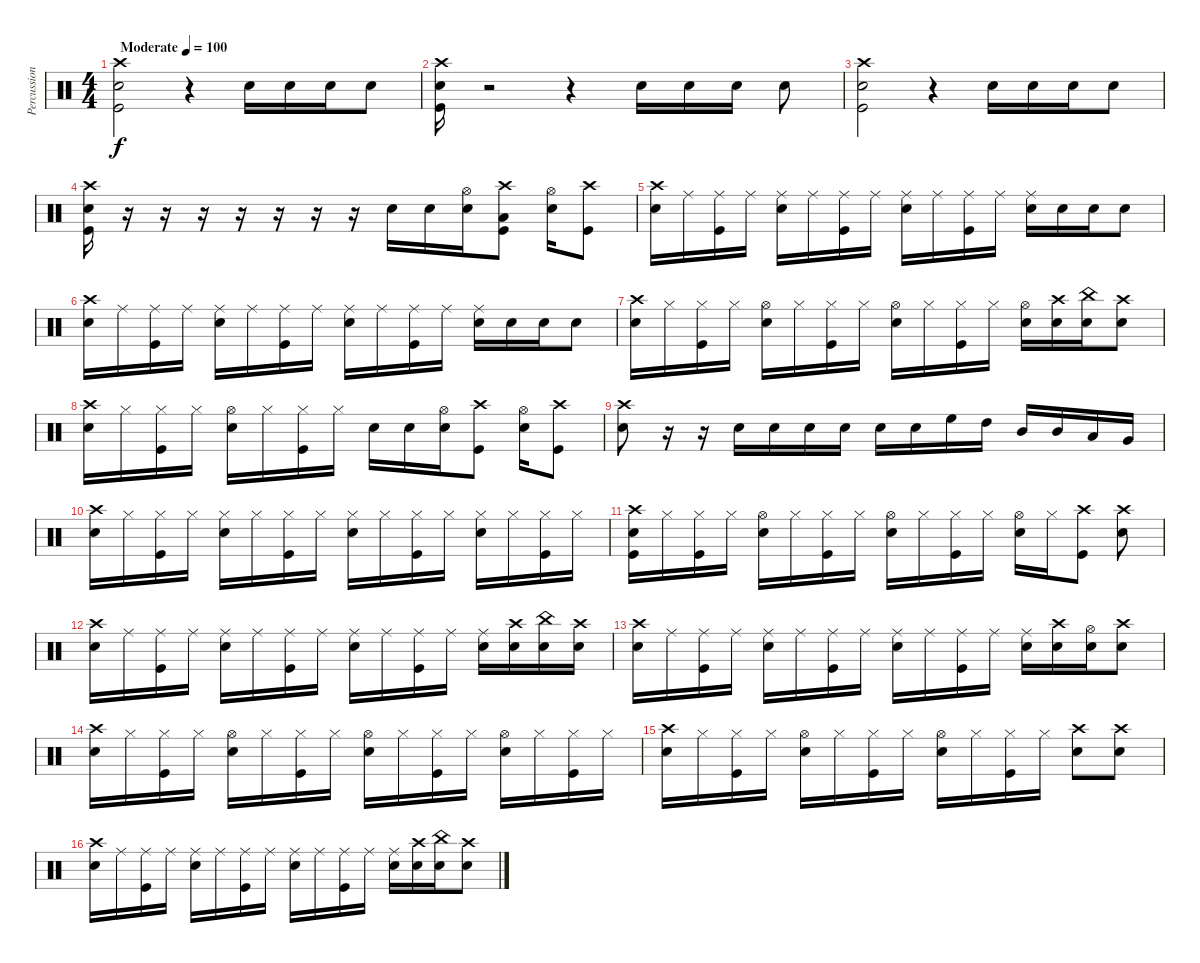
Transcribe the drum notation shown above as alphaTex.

\track ("Percussion" "Percussion") {instrument percussion}
\staff {score}
\articulation defaults
\ts (4 4)
\tempo (100 "Moderate")
\clef neutral
\ks c
("Crash high (hit)" "Snare (hit) 2" "Kick (hit)").2{dy f} r.4 "Snare (hit) 2".16 "Snare (hit) 2".16 "Snare (hit) 2".16 "Snare (hit) 2".8 |
("Crash high (hit)" "Snare (hit) 2" "Kick (hit)").16 r.2 r.4 "Snare (hit) 2".16 "Snare (hit) 2".16 "Snare (hit) 2".16 "Snare (hit) 2".8 |
("Crash high (hit)" "Snare (hit) 2" "Kick (hit)").2 r.4 "Snare (hit) 2".16 "Snare (hit) 2".16 "Snare (hit) 2".16 "Snare (hit) 2".8 |
("Snare (hit) 2" "Crash high (hit)" "Kick (hit)").16 r.16 r.16 r.16 r.16 r.16 r.16 r.16 "Snare (hit) 2".16 "Snare (hit) 2".16 ("Snare (hit) 2" "Hi-Hat (open)").16 ("Low Tom (hit)" "Crash high (hit)" "Kick (hit)").8 ("Hi-Hat (open)" "Snare (hit) 2").16 ("Kick (hit)" "Crash high (hit)").8 |
("Crash high (hit)" "Snare (hit) 2").16 "Ride (middle)".16 ("Ride (middle)" "Kick (hit)").16 "Ride (middle)".16 ("Ride (middle)" "Snare (hit) 2").16 "Ride (middle)".16 ("Ride (middle)" "Kick (hit)").16 "Ride (middle)".16 ("Ride (middle)" "Snare (hit) 2").16 "Ride (middle)".16 ("Ride (middle)" "Kick (hit)").16 "Ride (middle)".16 ("Ride (middle)" "Snare (hit) 2").16 "Snare (hit) 2".16 "Snare (hit) 2".16 "Snare (hit) 2".8 |
("Crash high (hit)" "Snare (hit) 2").16 "Ride (middle)".16 ("Ride (middle)" "Kick (hit)").16 "Ride (middle)".16 ("Ride (middle)" "Snare (hit) 2").16 "Ride (middle)".16 ("Ride (middle)" "Kick (hit)").16 "Ride (middle)".16 ("Ride (middle)" "Snare (hit) 2").16 "Ride (middle)".16 ("Ride (middle)" "Kick (hit)").16 "Ride (middle)".16 ("Ride (middle)" "Snare (hit) 2").16 "Snare (hit) 2".16 "Snare (hit) 2".16 "Snare (hit) 2".8 |
("Crash high (hit)" "Snare (hit) 2").16 "Hi-Hat (closed)".16 ("Hi-Hat (closed)" "Kick (hit)").16 "Hi-Hat (closed)".16 ("Hi-Hat (open)" "Snare (hit) 2").16 "Hi-Hat (closed)".16 ("Hi-Hat (closed)" "Kick (hit)").16 "Hi-Hat (closed)".16 ("Hi-Hat (open)" "Snare (hit) 2").16 "Hi-Hat (closed)".16 ("Hi-Hat (closed)" "Kick (hit)").16 "Hi-Hat (closed)".16 ("Hi-Hat (open)" "Snare (hit) 2").16 ("Crash high (hit)" "Snare (hit) 2").16 ("China (hit)" "Snare (hit) 2").16 ("Crash high (hit)" "Snare (hit) 2").8 |
("Snare (hit) 2" "Crash high (hit)").16 "Hi-Hat (closed)".16 ("Hi-Hat (closed)" "Kick (hit)").16 "Hi-Hat (closed)".16 ("Hi-Hat (open)" "Snare (hit) 2").16 "Hi-Hat (closed)".16 ("Hi-Hat (closed)" "Kick (hit)").16 "Hi-Hat (closed)".16 "Snare (hit) 2".16 "Snare (hit) 2".16 ("Hi-Hat (open)" "Snare (hit) 2").16 ("Crash high (hit)" "Kick (hit)").8 ("Snare (hit) 2" "Hi-Hat (open)").16 ("Crash high (hit)" "Kick (hit)").8 |
("Crash high (hit)" "Snare (hit) 2").8 r.16 r.16 "Snare (hit) 2".16 "Snare (hit) 2".16 "Snare (hit) 2".16 "Snare (hit) 2".16 "Snare (hit) 2".16 "Snare (hit) 2".16 "High Floor Tom (hit)".16 "High Tom (hit)".16 "Mid Tom (hit)".16 "Mid Tom (hit)".16 "Low Tom (hit)".16 "Very Low Tom (hit)".16 |
("Snare (hit) 2" "Crash high (hit)").16 "Hi-Hat (closed)".16 ("Hi-Hat (closed)" "Kick (hit)").16 "Hi-Hat (closed)".16 ("Snare (hit) 2" "Hi-Hat (closed)").16 "Hi-Hat (closed)".16 ("Hi-Hat (closed)" "Kick (hit)").16 "Hi-Hat (closed)".16 ("Hi-Hat (closed)" "Snare (hit) 2").16 "Hi-Hat (closed)".16 ("Hi-Hat (closed)" "Kick (hit)").16 "Hi-Hat (closed)".16 ("Hi-Hat (closed)" "Snare (hit) 2").16 "Hi-Hat (closed)".16 ("Hi-Hat (closed)" "Kick (hit)").16 "Hi-Hat (closed)".16 |
("Snare (hit) 2" "Kick (hit)" "Crash high (hit)").16 "Hi-Hat (closed)".16 ("Hi-Hat (closed)" "Kick (hit)").16 "Hi-Hat (closed)".16 ("Hi-Hat (open)" "Snare (hit) 2").16 "Hi-Hat (closed)".16 ("Hi-Hat (closed)" "Kick (hit)").16 "Hi-Hat (closed)".16 ("Snare (hit) 2" "Hi-Hat (open)").16 "Hi-Hat (closed)".16 ("Hi-Hat (closed)" "Kick (hit)").16 "Hi-Hat (closed)".16 ("Hi-Hat (open)" "Snare (hit) 2").16 "Hi-Hat (closed)".16 ("Crash high (hit)" "Kick (hit)").8 ("Snare (hit) 2" "Crash high (hit)").8 |
("Crash high (hit)" "Snare (hit) 2").16 "Ride (middle)".16 ("Ride (middle)" "Kick (hit)").16 "Ride (middle)".16 ("Ride (middle)" "Snare (hit) 2").16 "Ride (middle)".16 ("Ride (middle)" "Kick (hit)").16 "Ride (middle)".16 ("Ride (middle)" "Snare (hit) 2").16 "Ride (middle)".16 ("Ride (middle)" "Kick (hit)").16 "Ride (middle)".16 ("Ride (middle)" "Snare (hit) 2").16 ("Crash high (hit)" "Snare (hit) 2").16 ("China (hit)" "Snare (hit) 2").16 ("Crash high (hit)" "Snare (hit) 2").16 |
("Snare (hit) 2" "Crash high (hit)").16 "Ride (middle)".16 ("Ride (middle)" "Kick (hit)").16 "Ride (middle)".16 ("Ride (middle)" "Snare (hit) 2").16 "Ride (middle)".16 ("Ride (middle)" "Kick (hit)").16 "Ride (middle)".16 ("Ride (middle)" "Snare (hit) 2").16 "Ride (middle)".16 ("Ride (middle)" "Kick (hit)").16 "Ride (middle)".16 ("Ride (middle)" "Snare (hit) 2").16 ("Crash high (hit)" "Snare (hit) 2").16 ("Hi-Hat (open)" "Snare (hit) 2").16 ("Crash high (hit)" "Snare (hit) 2").8 |
("Crash high (hit)" "Snare (hit) 2").16 "Hi-Hat (closed)".16 ("Hi-Hat (closed)" "Kick (hit)").16 "Hi-Hat (closed)".16 ("Hi-Hat (open)" "Snare (hit) 2").16 "Hi-Hat (closed)".16 ("Hi-Hat (closed)" "Kick (hit)").16 "Hi-Hat (closed)".16 ("Hi-Hat (open)" "Snare (hit) 2").16 "Hi-Hat (closed)".16 ("Hi-Hat (closed)" "Kick (hit)").16 "Hi-Hat (closed)".16 ("Hi-Hat (open)" "Snare (hit) 2").16 "Hi-Hat (closed)".16 ("Hi-Hat (closed)" "Kick (hit)").16 "Hi-Hat (closed)".16 |
("Snare (hit) 2" "Crash high (hit)").16 "Hi-Hat (closed)".16 ("Hi-Hat (closed)" "Kick (hit)").16 "Hi-Hat (closed)".16 ("Hi-Hat (open)" "Snare (hit) 2").16 "Hi-Hat (closed)".16 ("Hi-Hat (closed)" "Kick (hit)").16 "Hi-Hat (closed)".16 ("Snare (hit) 2" "Hi-Hat (open)").16 "Hi-Hat (closed)".16 ("Hi-Hat (closed)" "Kick (hit)").16 "Hi-Hat (closed)".16 ("Snare (hit) 2" "Crash high (hit)").8 ("Snare (hit) 2" "Crash high (hit)").8 |
("Crash high (hit)" "Snare (hit) 2").16 "Ride (middle)".16 ("Ride (middle)" "Kick (hit)").16 "Ride (middle)".16 ("Ride (middle)" "Snare (hit) 2").16 "Ride (middle)".16 ("Ride (middle)" "Kick (hit)").16 "Ride (middle)".16 ("Ride (middle)" "Snare (hit) 2").16 "Ride (middle)".16 ("Ride (middle)" "Kick (hit)").16 "Ride (middle)".16 ("Snare (hit) 2" "Ride (middle)").16 ("Crash high (hit)" "Snare (hit) 2").16 ("China (hit)" "Snare (hit) 2").16 ("Crash high (hit)" "Snare (hit) 2").8
